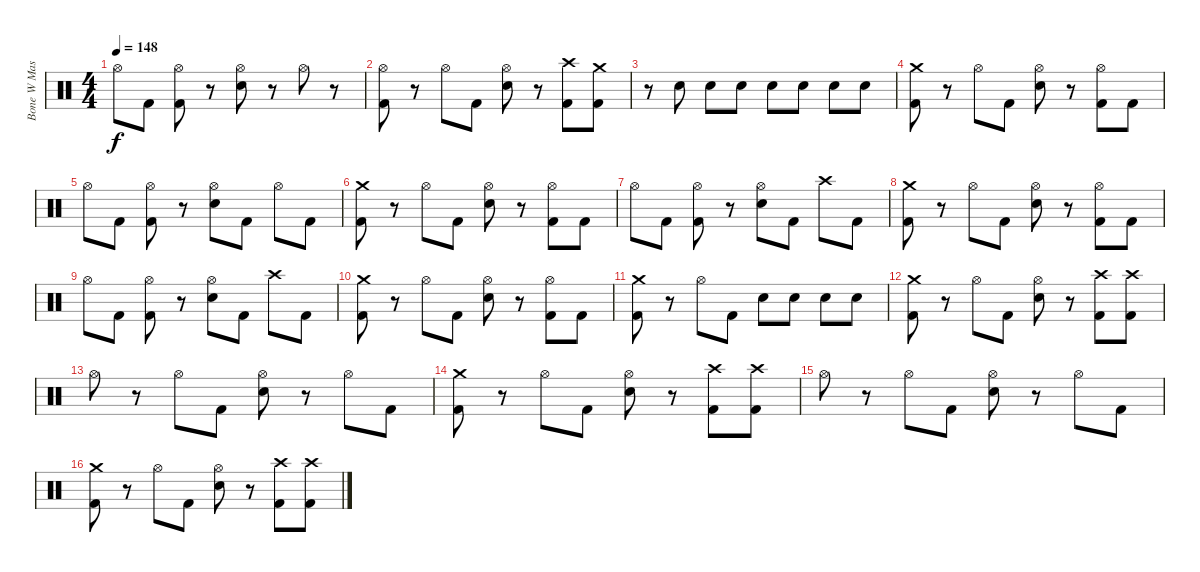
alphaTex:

\track ("Bone W Mashine" "Bone W Mas") {instrument percussion}
\staff {score}
\articulation defaults
\ts (4 4)
\tempo 148
\clef neutral
\ks c "Hi-Hat (open)".8{dy f} "Kick (hit) 2".8
("Hi-Hat (open)" "Kick (hit) 2").8 r.8 ("Hi-Hat (open)" "Electric Snare (hit)").8 r.8 "Hi-Hat (open)".8 r.8 |
("Hi-Hat (open)" "Kick (hit) 2").8 r.8 "Hi-Hat (open)".8 "Kick (hit) 2".8 ("Hi-Hat (open)" "Electric Snare (hit)").8 r.8 ("Crash high (hit)" "Kick (hit) 2").8 ("Crash medium (hit)" "Kick (hit) 2").8 |
r.8 "Electric Snare (hit)".8 "Electric Snare (hit)".8 "Electric Snare (hit)".8 "Electric Snare (hit)".8 "Electric Snare (hit)".8 "Electric Snare (hit)".8 "Electric Snare (hit)".8 |
("Crash medium (hit)" "Kick (hit) 2").8 r.8 "Hi-Hat (open)".8 "Kick (hit) 2".8 ("Hi-Hat (open)" "Electric Snare (hit)").8 r.8 ("Hi-Hat (open)" "Kick (hit) 2").8 "Kick (hit) 2".8 |
"Hi-Hat (open)".8 "Kick (hit) 2".8 ("Hi-Hat (open)" "Kick (hit) 2").8 r.8 ("Hi-Hat (open)" "Electric Snare (hit)").8 "Kick (hit) 2".8 "Hi-Hat (open)".8 "Kick (hit) 2".8 |
("Crash medium (hit)" "Kick (hit) 2").8 r.8 "Hi-Hat (open)".8 "Kick (hit) 2".8 ("Hi-Hat (open)" "Electric Snare (hit)").8 r.8 ("Hi-Hat (open)" "Kick (hit) 2").8 "Kick (hit) 2".8 |
"Hi-Hat (open)".8 "Kick (hit) 2".8 ("Hi-Hat (open)" "Kick (hit) 2").8 r.8 ("Hi-Hat (open)" "Electric Snare (hit)").8 "Kick (hit) 2".8 "Crash high (hit)".8 "Kick (hit) 2".8 |
("Crash medium (hit)" "Kick (hit) 2").8 r.8 "Hi-Hat (open)".8 "Kick (hit) 2".8 ("Hi-Hat (open)" "Electric Snare (hit)").8 r.8 ("Hi-Hat (open)" "Kick (hit) 2").8 "Kick (hit) 2".8 |
"Hi-Hat (open)".8 "Kick (hit) 2".8 ("Hi-Hat (open)" "Kick (hit) 2").8 r.8 ("Hi-Hat (open)" "Electric Snare (hit)").8 "Kick (hit) 2".8 "Crash high (hit)".8 "Kick (hit) 2".8 |
("Crash medium (hit)" "Kick (hit) 2").8 r.8 "Hi-Hat (open)".8 "Kick (hit) 2".8 ("Hi-Hat (open)" "Electric Snare (hit)").8 r.8 ("Hi-Hat (open)" "Kick (hit) 2").8 "Kick (hit) 2".8 |
("Crash medium (hit)" "Kick (hit) 2").8 r.8 "Hi-Hat (open)".8 "Kick (hit) 2".8 "Electric Snare (hit)".8 "Electric Snare (hit)".8 "Electric Snare (hit)".8 "Electric Snare (hit)".8 |
("Crash medium (hit)" "Kick (hit) 2").8 r.8 "Hi-Hat (open)".8 "Kick (hit) 2".8 ("Hi-Hat (open)" "Electric Snare (hit)").8 r.8 ("Crash high (hit)" "Kick (hit) 2").8 ("Crash high (hit)" "Kick (hit) 2").8 |
"Hi-Hat (open)".8 r.8 "Hi-Hat (open)".8 "Kick (hit) 2".8 ("Hi-Hat (open)" "Electric Snare (hit)").8 r.8 "Hi-Hat (open)".8 "Kick (hit) 2".8 |
("Crash medium (hit)" "Kick (hit) 2").8 r.8 "Hi-Hat (open)".8 "Kick (hit) 2".8 ("Hi-Hat (open)" "Electric Snare (hit)").8 r.8 ("Crash high (hit)" "Kick (hit) 2").8 ("Crash high (hit)" "Kick (hit) 2").8 |
"Hi-Hat (open)".8 r.8 "Hi-Hat (open)".8 "Kick (hit) 2".8 ("Hi-Hat (open)" "Electric Snare (hit)").8 r.8 "Hi-Hat (open)".8 "Kick (hit) 2".8 |
("Crash medium (hit)" "Kick (hit) 2").8 r.8 "Hi-Hat (open)".8 "Kick (hit) 2".8 ("Hi-Hat (open)" "Electric Snare (hit)").8 r.8 ("Crash high (hit)" "Kick (hit) 2").8 ("Crash high (hit)" "Kick (hit) 2").8
